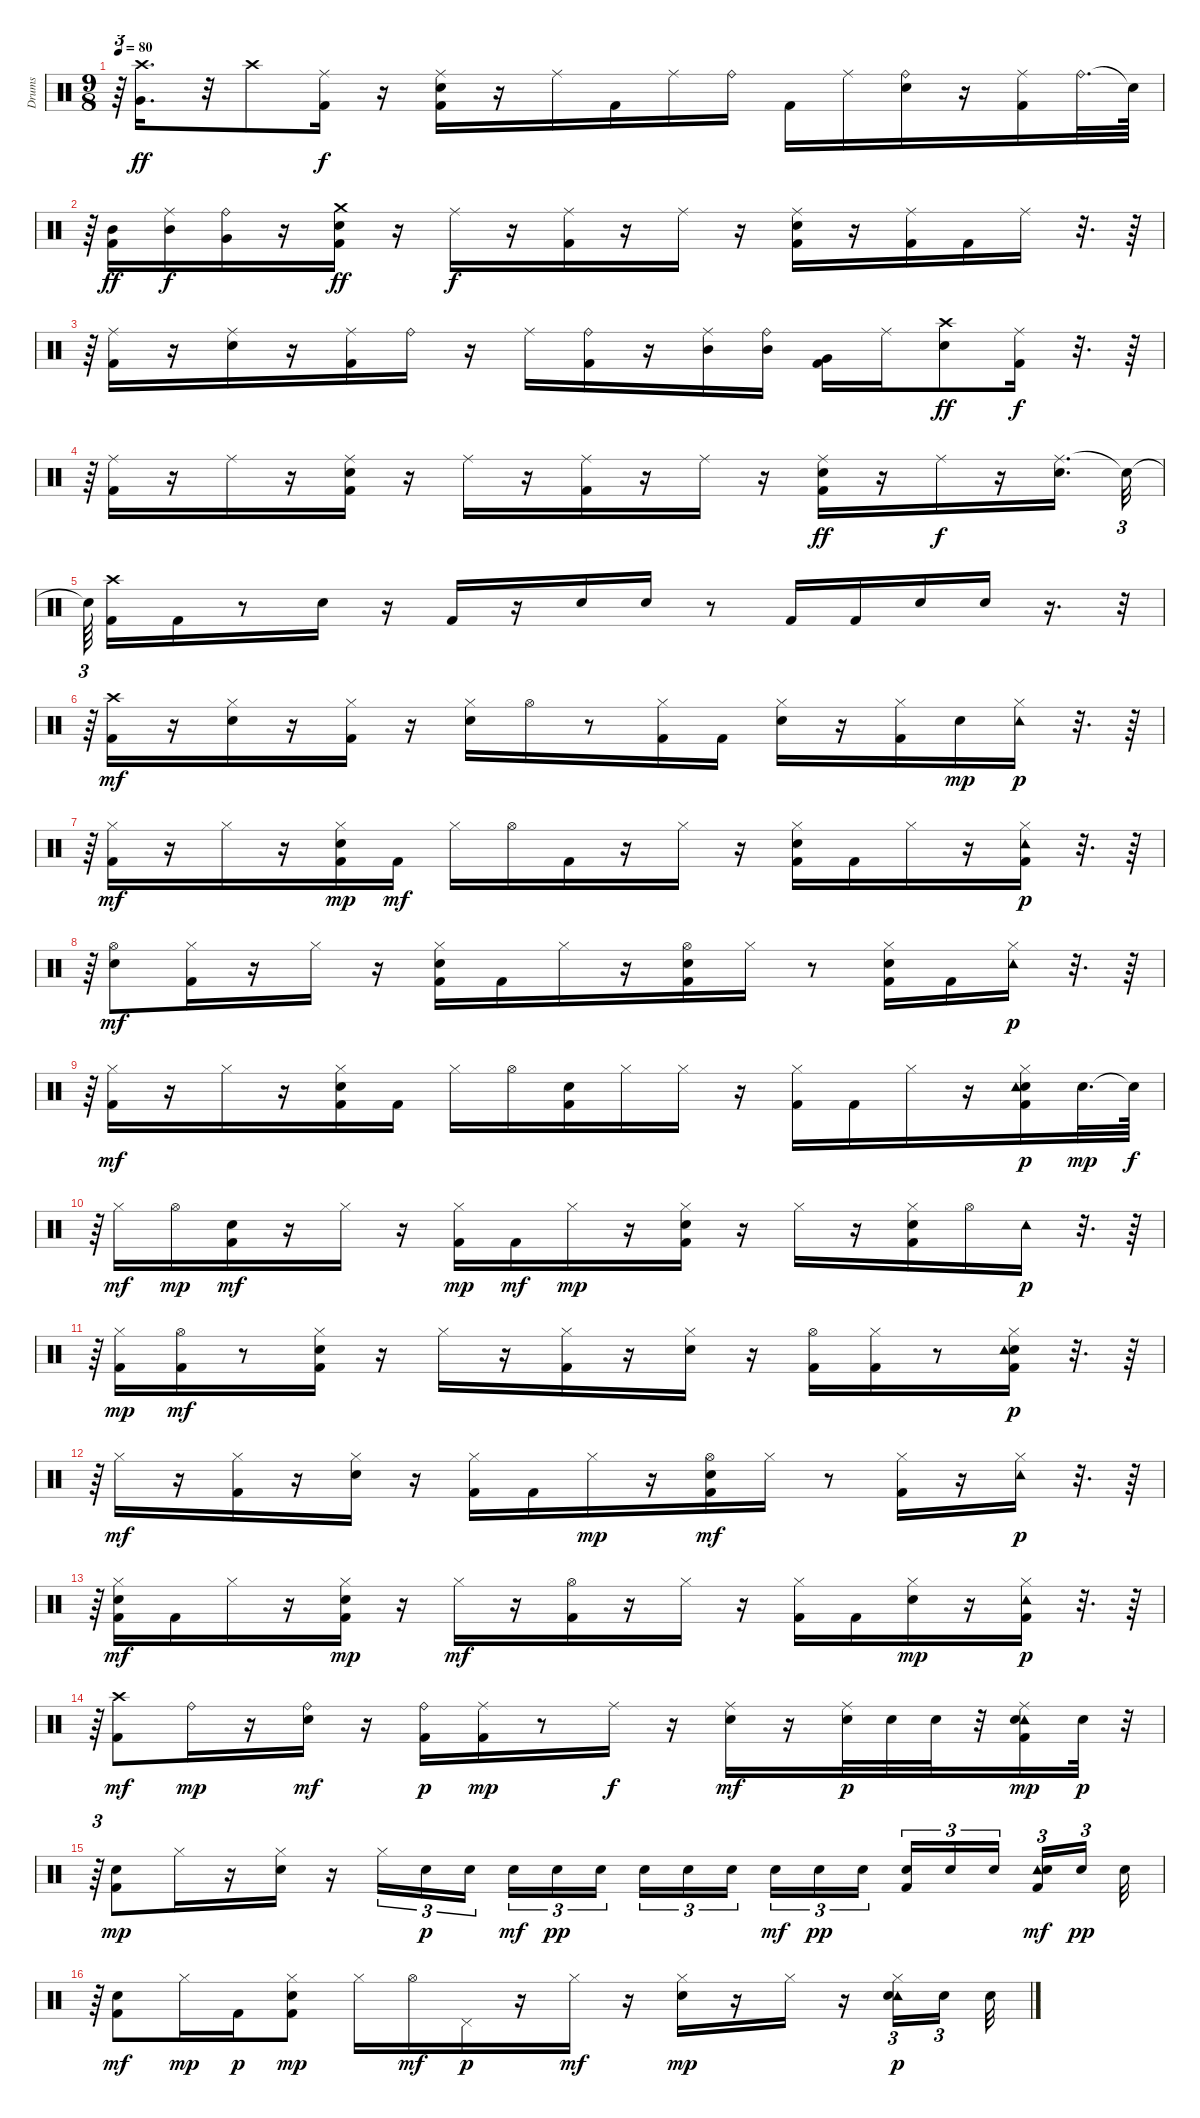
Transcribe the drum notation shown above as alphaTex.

\track ("Drums" "Drums") {instrument percussion}
\staff {score}
\articulation defaults
\ts (9 8)
\tempo 80
\clef neutral
\ks c
r.64{tu (3 2) dy ff} ("Very Low Tom (hit)" "Crash high (hit)").16{d} r.32 "Crash high (hit)".8 ("Kick (hit) 2" "Ride (middle)").16{dy f} r.16 ("Kick (hit) 2" "Ride (middle)" "Electric Snare (hit)").16 r.16 "Ride (middle)".16 "Kick (hit) 2".16 "Ride (middle)".16 "Ride (bell)".16 "Kick (hit) 2".16 "Ride (middle)".16 ("Ride (bell)" "Electric Snare (hit)").16 r.16 ("Kick (hit) 2" "Ride (middle)").16 "Ride (bell)".32{d} "Snare (hit)"{t}.64 |
r.64{tu (3 2)} ("Kick (hit) 2" "Mid Tom (hit)").16{dy ff} ("Ride (middle)" "Mid Tom (hit)").16{dy f} ("Ride (bell)" "Very Low Tom (hit)").16 r.16 ("Kick (hit) 2" "Electric Snare (hit)" "Crash medium (hit)").16{dy ff} r.16 "Ride (middle)".16{dy f} r.16 ("Kick (hit) 2" "Ride (middle)").16 r.16 "Ride (middle)".16 r.16 ("Kick (hit) 2" "Electric Snare (hit)" "Ride (middle)").16 r.16 ("Kick (hit) 2" "Ride (middle)").16 "Kick (hit) 2".16 "Ride (middle)".16 r.32{d} r.64 |
r.64{tu (3 2)} ("Kick (hit) 2" "Ride (middle)").16 r.16 ("Electric Snare (hit)" "Ride (middle)").16 r.16 ("Kick (hit) 2" "Ride (middle)").16 "Ride (bell)".16 r.16 "Ride (middle)".16 ("Kick (hit) 2" "Ride (bell)").16 r.16 ("Mid Tom (hit)" "Ride (middle)").16 ("Mid Tom (hit)" "Ride (bell)").16 ("Kick (hit) 2" "Very Low Tom (hit)").16 "Ride (middle)".16 ("Electric Snare (hit)" "Crash high (hit)").8{dy ff} ("Kick (hit) 2" "Ride (middle)").16{dy f} r.32{d} r.64 |
r.64{tu (3 2)} ("Kick (hit) 2" "Ride (middle)").16 r.16 "Ride (middle)".16 r.16 ("Kick (hit) 2" "Electric Snare (hit)" "Ride (middle)").16 r.16 "Ride (middle)".16 r.16 ("Kick (hit) 2" "Ride (middle)").16 r.16 "Ride (middle)".16 r.16 ("Kick (hit) 2" "Electric Snare (hit)" "Ride (middle)").16{dy ff} r.16 "Ride (middle)".16{dy f} r.16 ("Ride (middle)" "Electric Snare (hit)").16{d} "Snare (hit)"{t}.32{tu (3 2)} |
"Snare (hit)"{t}.64{tu (3 2) beam splitsecondary} ("Kick (hit) 2" "Crash high (hit)").16 "Kick (hit) 2".16 r.8 "Electric Snare (hit)".16 r.16 "Kick (hit) 2".16 r.16 "Electric Snare (hit)".16 "Electric Snare (hit)".16 r.8 "Kick (hit) 2".16 "Kick (hit) 2".16 "Electric Snare (hit)".16 "Electric Snare (hit)".16 r.16{d} r.32{tu (3 2)} |
r.64{tu (3 2)} ("Kick (hit) 2" "Crash high (hit)").16{dy mf} r.16 ("Electric Snare (hit)" "Hi-Hat (closed)").16 r.16 ("Kick (hit) 2" "Hi-Hat (closed)").16 r.16 ("Hi-Hat (closed)" "Electric Snare (hit)").16 "Hi-Hat (open)".16 r.8 ("Kick (hit) 2" "Hi-Hat (closed)").16 "Kick (hit) 2".16 ("Hi-Hat (closed)" "Electric Snare (hit)").16 r.16 ("Kick (hit) 2" "Hi-Hat (closed)").16 "Electric Snare (hit)".16{dy mp} ("Hi-Hat (closed)" "Tambourine (hit)").16{dy p} r.32{d} r.64 |
r.64{tu (3 2)} ("Kick (hit) 2" "Hi-Hat (closed)").16{dy mf} r.16 "Hi-Hat (closed)".16 r.16 ("Kick (hit) 2" "Hi-Hat (closed)" "Electric Snare (hit)").16{dy mp} "Kick (hit) 2".16{dy mf} "Hi-Hat (closed)".16 "Hi-Hat (open)".16 "Kick (hit) 2".16 r.16 "Hi-Hat (closed)".16 r.16 ("Kick (hit) 2" "Hi-Hat (closed)" "Electric Snare (hit)").16 "Kick (hit) 2".16 "Hi-Hat (closed)".16 r.16 ("Kick (hit) 2" "Hi-Hat (closed)" "Tambourine (hit)").16{dy p} r.32{d} r.64 |
r.64{tu (3 2)} ("Hi-Hat (open)" "Electric Snare (hit)").8{dy mf} ("Kick (hit) 2" "Hi-Hat (closed)").16 r.16 "Hi-Hat (closed)".16 r.16 ("Kick (hit) 2" "Hi-Hat (closed)" "Electric Snare (hit)").16 "Kick (hit) 2".16 "Hi-Hat (closed)".16 r.16 ("Kick (hit) 2" "Hi-Hat (open)" "Electric Snare (hit)").16 "Hi-Hat (closed)".16 r.8 ("Kick (hit) 2" "Hi-Hat (closed)" "Electric Snare (hit)").16 "Kick (hit) 2".16 ("Hi-Hat (closed)" "Tambourine (hit)").16{dy p} r.32{d} r.64 |
r.64{tu (3 2)} ("Kick (hit) 2" "Hi-Hat (closed)").16{dy mf} r.16 "Hi-Hat (closed)".16 r.16 ("Kick (hit) 2" "Hi-Hat (closed)" "Electric Snare (hit)").16 "Kick (hit) 2".16 "Hi-Hat (closed)".16 "Hi-Hat (open)".16 ("Kick (hit) 2" "Electric Snare (hit)").16 "Hi-Hat (closed)".16 "Hi-Hat (closed)".16 r.16 ("Kick (hit) 2" "Hi-Hat (closed)").16 "Kick (hit) 2".16 "Hi-Hat (closed)".16 r.16 ("Kick (hit) 2" "Hi-Hat (closed)" "Electric Snare (hit)" "Tambourine (hit)").16{dy p} "Electric Snare (hit)".32{d dy mp} "Snare (hit)"{t}.64{dy f} |
r.64{tu (3 2)} "Hi-Hat (closed)".16{dy mf} "Hi-Hat (open)".16{dy mp} ("Kick (hit) 2" "Electric Snare (hit)").16{dy mf} r.16 "Hi-Hat (closed)".16 r.16 ("Kick (hit) 2" "Hi-Hat (closed)").16{dy mp} "Kick (hit) 2".16{dy mf} "Hi-Hat (closed)".16{dy mp} r.16 ("Kick (hit) 2" "Hi-Hat (closed)" "Electric Snare (hit)").16 r.16 "Hi-Hat (closed)".16 r.16 ("Kick (hit) 2" "Hi-Hat (closed)" "Electric Snare (hit)").16 "Hi-Hat (open)".16 "Tambourine (hit)".16{dy p} r.32{d} r.64 |
r.64{tu (3 2)} ("Kick (hit) 2" "Hi-Hat (closed)").16{dy mp} ("Kick (hit) 2" "Hi-Hat (open)").16{dy mf} r.8 ("Kick (hit) 2" "Hi-Hat (closed)" "Electric Snare (hit)").16 r.16 "Hi-Hat (closed)".16 r.16 ("Kick (hit) 2" "Hi-Hat (closed)").16 r.16 ("Hi-Hat (closed)" "Electric Snare (hit)").16 r.16 ("Kick (hit) 2" "Hi-Hat (open)").16 ("Kick (hit) 2" "Hi-Hat (closed)").16 r.8 ("Kick (hit) 2" "Hi-Hat (closed)" "Electric Snare (hit)" "Tambourine (hit)").16{dy p} r.32{d} r.64 |
r.64{tu (3 2)} "Hi-Hat (closed)".16{dy mf} r.16 ("Kick (hit) 2" "Hi-Hat (closed)").16 r.16 ("Hi-Hat (closed)" "Electric Snare (hit)").16 r.16 ("Kick (hit) 2" "Hi-Hat (closed)").16 "Kick (hit) 2".16 "Hi-Hat (closed)".16{dy mp} r.16 ("Kick (hit) 2" "Hi-Hat (open)" "Electric Snare (hit)").16{dy mf} "Hi-Hat (closed)".16 r.8 ("Kick (hit) 2" "Hi-Hat (closed)").16 r.16 ("Hi-Hat (closed)" "Tambourine (hit)").16{dy p} r.32{d} r.64 |
r.64{tu (3 2)} ("Kick (hit) 2" "Hi-Hat (closed)" "Electric Snare (hit)").16{dy mf} "Kick (hit) 2".16 "Hi-Hat (closed)".16 r.16 ("Kick (hit) 2" "Hi-Hat (closed)" "Electric Snare (hit)").16{dy mp} r.16 "Hi-Hat (closed)".16{dy mf} r.16 ("Kick (hit) 2" "Hi-Hat (open)").16 r.16 "Hi-Hat (closed)".16 r.16 ("Kick (hit) 2" "Hi-Hat (closed)").16 "Kick (hit) 2".16 ("Hi-Hat (closed)" "Electric Snare (hit)").16{dy mp} r.16 ("Kick (hit) 2" "Hi-Hat (closed)" "Tambourine (hit)").16{dy p} r.32{d} r.64 |
r.64{tu (3 2)} ("Kick (hit) 2" "Crash high (hit)").8{dy mf} "Ride (bell)".16{dy mp} r.16 ("Ride (bell)" "Electric Snare (hit)").16{dy mf} r.16 ("Kick (hit) 2" "Ride (bell)").16{dy p} ("Kick (hit) 2" "Ride (middle)").16{dy mp} r.8 "Ride (middle)".16{dy f} r.16 ("Ride (middle)" "Electric Snare (hit)").16{dy mf} r.16 ("Ride (middle)" "Electric Snare (hit)").32{dy p} "Electric Snare (hit)".32 "Electric Snare (hit)".32 r.32 ("Tambourine (hit)" "Kick (hit) 2" "Ride (middle)" "Electric Snare (hit)").16{dy mp} "Electric Snare (hit)".32{dy p} r.32{tu (3 2)} |
r.64{tu (3 2)} ("Electric Snare (hit)" "Kick (hit) 2").8{dy mp} "Hi-Hat (closed)".16 r.16 ("Electric Snare (hit)" "Hi-Hat (closed)").16 r.16 "Hi-Hat (closed)".16{tu (3 2)} "Electric Snare (hit)".16{tu (3 2) dy p} "Electric Snare (hit)".16{tu (3 2) beam splitsecondary} "Electric Snare (hit)".16{tu (3 2) dy mf} "Electric Snare (hit)".16{tu (3 2) dy pp} "Electric Snare (hit)".16{tu (3 2) beam splitsecondary} "Electric Snare (hit)".16{tu (3 2)} "Electric Snare (hit)".16{tu (3 2)} "Electric Snare (hit)".16{tu (3 2)} "Electric Snare (hit)".16{tu (3 2) dy mf} "Electric Snare (hit)".16{tu (3 2) dy pp} "Electric Snare (hit)".16{tu (3 2) beam splitsecondary} ("Kick (hit) 2" "Electric Snare (hit)").16{tu (3 2)} "Electric Snare (hit)".16{tu (3 2)} "Electric Snare (hit)".16{tu (3 2) beam splitsecondary} ("Tambourine (hit)" "Kick (hit) 2" "Electric Snare (hit)").16{tu (3 2) dy mf} "Electric Snare (hit)".16{tu (3 2) dy pp beam splitsecondary} "Electric Snare (hit)".32 |
r.64{tu (3 2)} ("Kick (hit) 2" "Electric Snare (hit)").8{dy mf} "Hi-Hat (closed)".16{dy mp} "Kick (hit) 2".16{dy p} ("Kick (hit) 2" "Hi-Hat (closed)" "Electric Snare (hit)").8{dy mp} "Hi-Hat (closed)".16 "Hi-Hat (open)".16{dy mf} "Pedal Hi-Hat (hit)".16{dy p} r.16 "Hi-Hat (closed)".16{dy mf} r.16 ("Hi-Hat (closed)" "Electric Snare (hit)").16{dy mp} r.16 "Hi-Hat (closed)".16 r.16 ("Tambourine (hit)" "Hi-Hat (closed)" "Electric Snare (hit)").16{tu (3 2) dy p} "Electric Snare (hit)".16{tu (3 2) beam splitsecondary} "Electric Snare (hit)".32
